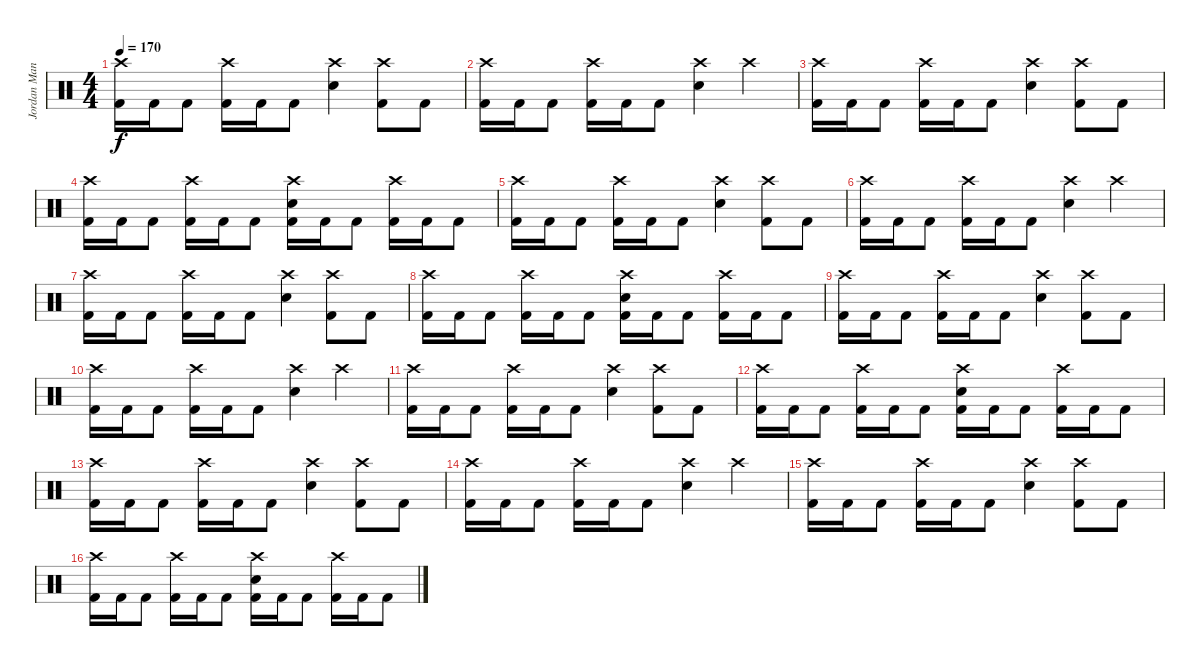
\track ("Jordan Mancino" "Jordan Man") {instrument percussion}
\staff {score}
\articulation defaults
\ts (4 4)
\tempo 172
\tempo 170
\clef neutral
\ks c
("Crash high (hit)" "Kick (hit) 2").16{dy f} "Kick (hit) 2".16 "Kick (hit) 2".8 ("Crash high (hit)" "Kick (hit) 2").16 "Kick (hit) 2".16 "Kick (hit) 2".8 ("Crash high (hit)" "Electric Snare (hit)").4 ("Crash high (hit)" "Kick (hit) 2").8 "Kick (hit) 2".8 |
("Crash high (hit)" "Kick (hit) 2").16 "Kick (hit) 2".16 "Kick (hit) 2".8 ("Crash high (hit)" "Kick (hit) 2").16 "Kick (hit) 2".16 "Kick (hit) 2".8 ("Crash high (hit)" "Electric Snare (hit)").4 "Crash high (hit)".4 |
("Crash high (hit)" "Kick (hit) 2").16 "Kick (hit) 2".16 "Kick (hit) 2".8 ("Crash high (hit)" "Kick (hit) 2").16 "Kick (hit) 2".16 "Kick (hit) 2".8 ("Crash high (hit)" "Electric Snare (hit)").4 ("Crash high (hit)" "Kick (hit) 2").8 "Kick (hit) 2".8 |
("Crash high (hit)" "Kick (hit) 2").16 "Kick (hit) 2".16 "Kick (hit) 2".8 ("Crash high (hit)" "Kick (hit) 2").16 "Kick (hit) 2".16 "Kick (hit) 2".8 ("Crash high (hit)" "Electric Snare (hit)" "Kick (hit) 2").16 "Kick (hit) 2".16 "Kick (hit) 2".8 ("Crash high (hit)" "Kick (hit) 2").16 "Kick (hit) 2".16 "Kick (hit) 2".8 |
("Crash high (hit)" "Kick (hit) 2").16 "Kick (hit) 2".16 "Kick (hit) 2".8 ("Crash high (hit)" "Kick (hit) 2").16 "Kick (hit) 2".16 "Kick (hit) 2".8 ("Crash high (hit)" "Electric Snare (hit)").4 ("Crash high (hit)" "Kick (hit) 2").8 "Kick (hit) 2".8 |
("Crash high (hit)" "Kick (hit) 2").16 "Kick (hit) 2".16 "Kick (hit) 2".8 ("Crash high (hit)" "Kick (hit) 2").16 "Kick (hit) 2".16 "Kick (hit) 2".8 ("Crash high (hit)" "Electric Snare (hit)").4 "Crash high (hit)".4 |
("Crash high (hit)" "Kick (hit) 2").16 "Kick (hit) 2".16 "Kick (hit) 2".8 ("Crash high (hit)" "Kick (hit) 2").16 "Kick (hit) 2".16 "Kick (hit) 2".8 ("Crash high (hit)" "Electric Snare (hit)").4 ("Crash high (hit)" "Kick (hit) 2").8 "Kick (hit) 2".8 |
("Crash high (hit)" "Kick (hit) 2").16 "Kick (hit) 2".16 "Kick (hit) 2".8 ("Crash high (hit)" "Kick (hit) 2").16 "Kick (hit) 2".16 "Kick (hit) 2".8 ("Crash high (hit)" "Electric Snare (hit)" "Kick (hit) 2").16 "Kick (hit) 2".16 "Kick (hit) 2".8 ("Crash high (hit)" "Kick (hit) 2").16 "Kick (hit) 2".16 "Kick (hit) 2".8 |
("Crash high (hit)" "Kick (hit) 2").16 "Kick (hit) 2".16 "Kick (hit) 2".8 ("Crash high (hit)" "Kick (hit) 2").16 "Kick (hit) 2".16 "Kick (hit) 2".8 ("Crash high (hit)" "Electric Snare (hit)").4 ("Crash high (hit)" "Kick (hit) 2").8 "Kick (hit) 2".8 |
("Crash high (hit)" "Kick (hit) 2").16 "Kick (hit) 2".16 "Kick (hit) 2".8 ("Crash high (hit)" "Kick (hit) 2").16 "Kick (hit) 2".16 "Kick (hit) 2".8 ("Crash high (hit)" "Electric Snare (hit)").4 "Crash high (hit)".4 |
("Crash high (hit)" "Kick (hit) 2").16 "Kick (hit) 2".16 "Kick (hit) 2".8 ("Crash high (hit)" "Kick (hit) 2").16 "Kick (hit) 2".16 "Kick (hit) 2".8 ("Crash high (hit)" "Electric Snare (hit)").4 ("Crash high (hit)" "Kick (hit) 2").8 "Kick (hit) 2".8 |
("Crash high (hit)" "Kick (hit) 2").16 "Kick (hit) 2".16 "Kick (hit) 2".8 ("Crash high (hit)" "Kick (hit) 2").16 "Kick (hit) 2".16 "Kick (hit) 2".8 ("Crash high (hit)" "Electric Snare (hit)" "Kick (hit) 2").16 "Kick (hit) 2".16 "Kick (hit) 2".8 ("Crash high (hit)" "Kick (hit) 2").16 "Kick (hit) 2".16 "Kick (hit) 2".8 |
("Crash high (hit)" "Kick (hit) 2").16 "Kick (hit) 2".16 "Kick (hit) 2".8 ("Crash high (hit)" "Kick (hit) 2").16 "Kick (hit) 2".16 "Kick (hit) 2".8 ("Crash high (hit)" "Electric Snare (hit)").4 ("Crash high (hit)" "Kick (hit) 2").8 "Kick (hit) 2".8 |
("Crash high (hit)" "Kick (hit) 2").16 "Kick (hit) 2".16 "Kick (hit) 2".8 ("Crash high (hit)" "Kick (hit) 2").16 "Kick (hit) 2".16 "Kick (hit) 2".8 ("Crash high (hit)" "Electric Snare (hit)").4 "Crash high (hit)".4 |
("Crash high (hit)" "Kick (hit) 2").16 "Kick (hit) 2".16 "Kick (hit) 2".8 ("Crash high (hit)" "Kick (hit) 2").16 "Kick (hit) 2".16 "Kick (hit) 2".8 ("Crash high (hit)" "Electric Snare (hit)").4 ("Crash high (hit)" "Kick (hit) 2").8 "Kick (hit) 2".8 |
("Crash high (hit)" "Kick (hit) 2").16 "Kick (hit) 2".16 "Kick (hit) 2".8 ("Crash high (hit)" "Kick (hit) 2").16 "Kick (hit) 2".16 "Kick (hit) 2".8 ("Crash high (hit)" "Electric Snare (hit)" "Kick (hit) 2").16 "Kick (hit) 2".16 "Kick (hit) 2".8 ("Crash high (hit)" "Kick (hit) 2").16 "Kick (hit) 2".16 "Kick (hit) 2".8
